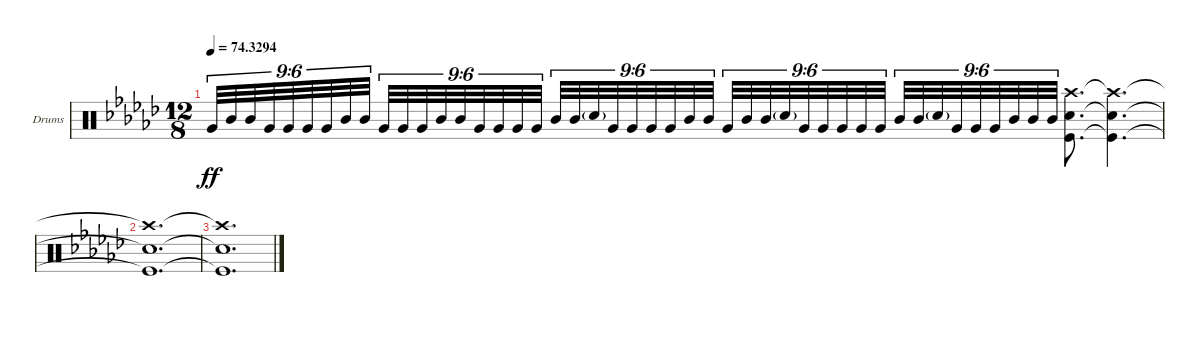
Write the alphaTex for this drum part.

\bracketExtendMode groupsimilarinstruments
\firstSystemTrackNameOrientation horizontal
\otherSystemsTrackNameOrientation horizontal
\track ("Drumkit" "Drums") {instrument percussion}
\staff {score}
\articulation defaults
\ts (12 8)
\tempo
74.3294
\accidentals auto
\clef neutral
\ottava regular
\simile none
\ks ebminor "Very Low Tom (hit)".32{tu (9 6) dy ff} "Mid Tom (hit)".32{tu (9 6)} "Mid Tom (hit)".32{tu (9 6)} "Very Low Tom (hit)".32{tu (9 6)} "Very Low Tom (hit)".32{tu (9 6)} "Very Low Tom (hit)".32{tu (9 6)} "Very Low Tom (hit)".32{tu (9 6)} "Mid Tom (hit)".32{tu (9 6)} "Mid Tom (hit)".32{tu (9 6)} "Very Low Tom (hit)".32{tu (9 6)} "Very Low Tom (hit)".32{tu (9 6)} "Very Low Tom (hit)".32{tu (9 6)} "Mid Tom (hit)".32{tu (9 6)} "Mid Tom (hit)".32{tu (9 6)} "Very Low Tom (hit)".32{tu (9 6)} "Very Low Tom (hit)".32{tu (9 6)} "Very Low Tom (hit)".32{tu (9 6)} "Very Low Tom (hit)".32{tu (9 6)} "Mid Tom (hit)".32{tu (9 6)} "Mid Tom (hit)".32{tu (9 6)} "Snare (hit) 2"{g}.32{tu (9 6)} "Very Low Tom (hit)".32{tu (9 6)} "Very Low Tom (hit)".32{tu (9 6)} "Very Low Tom (hit)".32{tu (9 6)} "Very Low Tom (hit)".32{tu (9 6)} "Mid Tom (hit)".32{tu (9 6)} "Mid Tom (hit)".32{tu (9 6)} "Very Low Tom (hit)".32{tu (9 6)} "Mid Tom (hit)".32{tu (9 6)} "Mid Tom (hit)".32{tu (9 6)} "Snare (hit) 2"{g}.32{tu (9 6)} "Very Low Tom (hit)".32{tu (9 6)} "Very Low Tom (hit)".32{tu (9 6)} "Very Low Tom (hit)".32{tu (9 6)} "Very Low Tom (hit)".32{tu (9 6)} "Very Low Tom (hit)".32{tu (9 6)} "Mid Tom (hit)".32{tu (9 6)} "Mid Tom (hit)".32{tu (9 6)} "Snare (hit) 2"{g}.32{tu (9 6)} "Very Low Tom (hit)".32{tu (9 6)} "Very Low Tom (hit)".32{tu (9 6)} "Very Low Tom (hit)".32{tu (9 6)} "Mid Tom (hit)".32{tu (9 6)} "Mid Tom (hit)".32{tu (9 6)} "Mid Tom (hit)".32{tu (9 6)}
("Kick (hit)" "Snare (hit) 2" "Crash high (hit)").8{d} ("Kick (hit)"{t} "Snare (hit) 2"{t} "Crash high (hit)"{t}).4{d} |
("Kick (hit)"{t} "Snare (hit) 2"{t} "Crash high (hit)"{t}).1{d} |
("Kick (hit)"{t} "Snare (hit) 2"{t} "Crash high (hit)"{t}).1{d}
